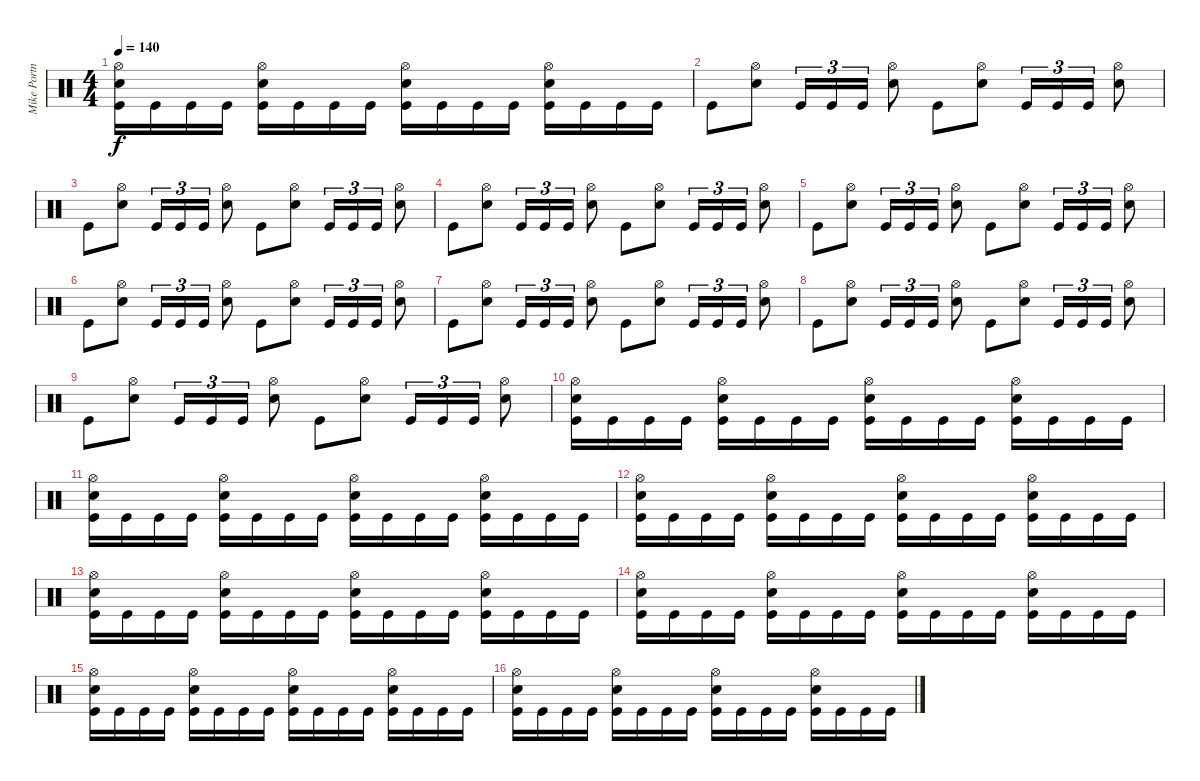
\track ("Mike Portnoy" "Mike Portn") {instrument percussion}
\staff {score}
\articulation defaults
\ts (4 4)
\tempo 140
\clef neutral
\ks c
("Hi-Hat (open)" "Kick (hit)" "Electric Snare (hit)").16{dy f} "Kick (hit)".16 "Kick (hit)".16 "Kick (hit)".16 ("Hi-Hat (open)" "Kick (hit)" "Electric Snare (hit)").16 "Kick (hit)".16 "Kick (hit)".16 "Kick (hit)".16 ("Hi-Hat (open)" "Kick (hit)" "Electric Snare (hit)").16 "Kick (hit)".16 "Kick (hit)".16 "Kick (hit)".16 ("Hi-Hat (open)" "Kick (hit)" "Electric Snare (hit)").16 "Kick (hit)".16 "Kick (hit)".16 "Kick (hit)".16 |
"Kick (hit)".8 ("Hi-Hat (open)" "Electric Snare (hit)").8 "Kick (hit)".16{tu (3 2)} "Kick (hit)".16{tu (3 2)} "Kick (hit)".16{tu (3 2)} ("Hi-Hat (open)" "Electric Snare (hit)").8 "Kick (hit)".8 ("Hi-Hat (open)" "Electric Snare (hit)").8 "Kick (hit)".16{tu (3 2)} "Kick (hit)".16{tu (3 2)} "Kick (hit)".16{tu (3 2)} ("Hi-Hat (open)" "Electric Snare (hit)").8 |
"Kick (hit)".8 ("Hi-Hat (open)" "Electric Snare (hit)").8 "Kick (hit)".16{tu (3 2)} "Kick (hit)".16{tu (3 2)} "Kick (hit)".16{tu (3 2)} ("Hi-Hat (open)" "Electric Snare (hit)").8 "Kick (hit)".8 ("Hi-Hat (open)" "Electric Snare (hit)").8 "Kick (hit)".16{tu (3 2)} "Kick (hit)".16{tu (3 2)} "Kick (hit)".16{tu (3 2)} ("Hi-Hat (open)" "Electric Snare (hit)").8 |
"Kick (hit)".8 ("Hi-Hat (open)" "Electric Snare (hit)").8 "Kick (hit)".16{tu (3 2)} "Kick (hit)".16{tu (3 2)} "Kick (hit)".16{tu (3 2)} ("Hi-Hat (open)" "Electric Snare (hit)").8 "Kick (hit)".8 ("Hi-Hat (open)" "Electric Snare (hit)").8 "Kick (hit)".16{tu (3 2)} "Kick (hit)".16{tu (3 2)} "Kick (hit)".16{tu (3 2)} ("Hi-Hat (open)" "Electric Snare (hit)").8 |
"Kick (hit)".8 ("Hi-Hat (open)" "Electric Snare (hit)").8 "Kick (hit)".16{tu (3 2)} "Kick (hit)".16{tu (3 2)} "Kick (hit)".16{tu (3 2)} ("Hi-Hat (open)" "Electric Snare (hit)").8 "Kick (hit)".8 ("Hi-Hat (open)" "Electric Snare (hit)").8 "Kick (hit)".16{tu (3 2)} "Kick (hit)".16{tu (3 2)} "Kick (hit)".16{tu (3 2)} ("Hi-Hat (open)" "Electric Snare (hit)").8 |
"Kick (hit)".8 ("Hi-Hat (open)" "Electric Snare (hit)").8 "Kick (hit)".16{tu (3 2)} "Kick (hit)".16{tu (3 2)} "Kick (hit)".16{tu (3 2)} ("Hi-Hat (open)" "Electric Snare (hit)").8 "Kick (hit)".8 ("Hi-Hat (open)" "Electric Snare (hit)").8 "Kick (hit)".16{tu (3 2)} "Kick (hit)".16{tu (3 2)} "Kick (hit)".16{tu (3 2)} ("Hi-Hat (open)" "Electric Snare (hit)").8 |
"Kick (hit)".8 ("Hi-Hat (open)" "Electric Snare (hit)").8 "Kick (hit)".16{tu (3 2)} "Kick (hit)".16{tu (3 2)} "Kick (hit)".16{tu (3 2)} ("Hi-Hat (open)" "Electric Snare (hit)").8 "Kick (hit)".8 ("Hi-Hat (open)" "Electric Snare (hit)").8 "Kick (hit)".16{tu (3 2)} "Kick (hit)".16{tu (3 2)} "Kick (hit)".16{tu (3 2)} ("Hi-Hat (open)" "Electric Snare (hit)").8 |
"Kick (hit)".8 ("Hi-Hat (open)" "Electric Snare (hit)").8 "Kick (hit)".16{tu (3 2)} "Kick (hit)".16{tu (3 2)} "Kick (hit)".16{tu (3 2)} ("Hi-Hat (open)" "Electric Snare (hit)").8 "Kick (hit)".8 ("Hi-Hat (open)" "Electric Snare (hit)").8 "Kick (hit)".16{tu (3 2)} "Kick (hit)".16{tu (3 2)} "Kick (hit)".16{tu (3 2)} ("Hi-Hat (open)" "Electric Snare (hit)").8 |
"Kick (hit)".8 ("Hi-Hat (open)" "Electric Snare (hit)").8 "Kick (hit)".16{tu (3 2)} "Kick (hit)".16{tu (3 2)} "Kick (hit)".16{tu (3 2)} ("Hi-Hat (open)" "Electric Snare (hit)").8 "Kick (hit)".8 ("Hi-Hat (open)" "Electric Snare (hit)").8 "Kick (hit)".16{tu (3 2)} "Kick (hit)".16{tu (3 2)} "Kick (hit)".16{tu (3 2)} ("Hi-Hat (open)" "Electric Snare (hit)").8 |
("Hi-Hat (open)" "Kick (hit)" "Electric Snare (hit)").16 "Kick (hit)".16 "Kick (hit)".16 "Kick (hit)".16 ("Hi-Hat (open)" "Kick (hit)" "Electric Snare (hit)").16 "Kick (hit)".16 "Kick (hit)".16 "Kick (hit)".16 ("Hi-Hat (open)" "Kick (hit)" "Electric Snare (hit)").16 "Kick (hit)".16 "Kick (hit)".16 "Kick (hit)".16 ("Hi-Hat (open)" "Kick (hit)" "Electric Snare (hit)").16 "Kick (hit)".16 "Kick (hit)".16 "Kick (hit)".16 |
("Hi-Hat (open)" "Kick (hit)" "Electric Snare (hit)").16 "Kick (hit)".16 "Kick (hit)".16 "Kick (hit)".16 ("Hi-Hat (open)" "Kick (hit)" "Electric Snare (hit)").16 "Kick (hit)".16 "Kick (hit)".16 "Kick (hit)".16 ("Hi-Hat (open)" "Kick (hit)" "Electric Snare (hit)").16 "Kick (hit)".16 "Kick (hit)".16 "Kick (hit)".16 ("Hi-Hat (open)" "Kick (hit)" "Electric Snare (hit)").16 "Kick (hit)".16 "Kick (hit)".16 "Kick (hit)".16 |
("Hi-Hat (open)" "Kick (hit)" "Electric Snare (hit)").16 "Kick (hit)".16 "Kick (hit)".16 "Kick (hit)".16 ("Hi-Hat (open)" "Kick (hit)" "Electric Snare (hit)").16 "Kick (hit)".16 "Kick (hit)".16 "Kick (hit)".16 ("Hi-Hat (open)" "Kick (hit)" "Electric Snare (hit)").16 "Kick (hit)".16 "Kick (hit)".16 "Kick (hit)".16 ("Hi-Hat (open)" "Kick (hit)" "Electric Snare (hit)").16 "Kick (hit)".16 "Kick (hit)".16 "Kick (hit)".16 |
("Hi-Hat (open)" "Kick (hit)" "Electric Snare (hit)").16 "Kick (hit)".16 "Kick (hit)".16 "Kick (hit)".16 ("Hi-Hat (open)" "Kick (hit)" "Electric Snare (hit)").16 "Kick (hit)".16 "Kick (hit)".16 "Kick (hit)".16 ("Hi-Hat (open)" "Kick (hit)" "Electric Snare (hit)").16 "Kick (hit)".16 "Kick (hit)".16 "Kick (hit)".16 ("Hi-Hat (open)" "Kick (hit)" "Electric Snare (hit)").16 "Kick (hit)".16 "Kick (hit)".16 "Kick (hit)".16 |
("Hi-Hat (open)" "Kick (hit)" "Electric Snare (hit)").16 "Kick (hit)".16 "Kick (hit)".16 "Kick (hit)".16 ("Hi-Hat (open)" "Kick (hit)" "Electric Snare (hit)").16 "Kick (hit)".16 "Kick (hit)".16 "Kick (hit)".16 ("Hi-Hat (open)" "Kick (hit)" "Electric Snare (hit)").16 "Kick (hit)".16 "Kick (hit)".16 "Kick (hit)".16 ("Hi-Hat (open)" "Kick (hit)" "Electric Snare (hit)").16 "Kick (hit)".16 "Kick (hit)".16 "Kick (hit)".16 |
("Hi-Hat (open)" "Kick (hit)" "Electric Snare (hit)").16 "Kick (hit)".16 "Kick (hit)".16 "Kick (hit)".16 ("Hi-Hat (open)" "Kick (hit)" "Electric Snare (hit)").16 "Kick (hit)".16 "Kick (hit)".16 "Kick (hit)".16 ("Hi-Hat (open)" "Kick (hit)" "Electric Snare (hit)").16 "Kick (hit)".16 "Kick (hit)".16 "Kick (hit)".16 ("Hi-Hat (open)" "Kick (hit)" "Electric Snare (hit)").16 "Kick (hit)".16 "Kick (hit)".16 "Kick (hit)".16 |
("Hi-Hat (open)" "Kick (hit)" "Electric Snare (hit)").16 "Kick (hit)".16 "Kick (hit)".16 "Kick (hit)".16 ("Hi-Hat (open)" "Kick (hit)" "Electric Snare (hit)").16 "Kick (hit)".16 "Kick (hit)".16 "Kick (hit)".16 ("Hi-Hat (open)" "Kick (hit)" "Electric Snare (hit)").16 "Kick (hit)".16 "Kick (hit)".16 "Kick (hit)".16 ("Hi-Hat (open)" "Kick (hit)" "Electric Snare (hit)").16 "Kick (hit)".16 "Kick (hit)".16 "Kick (hit)".16
